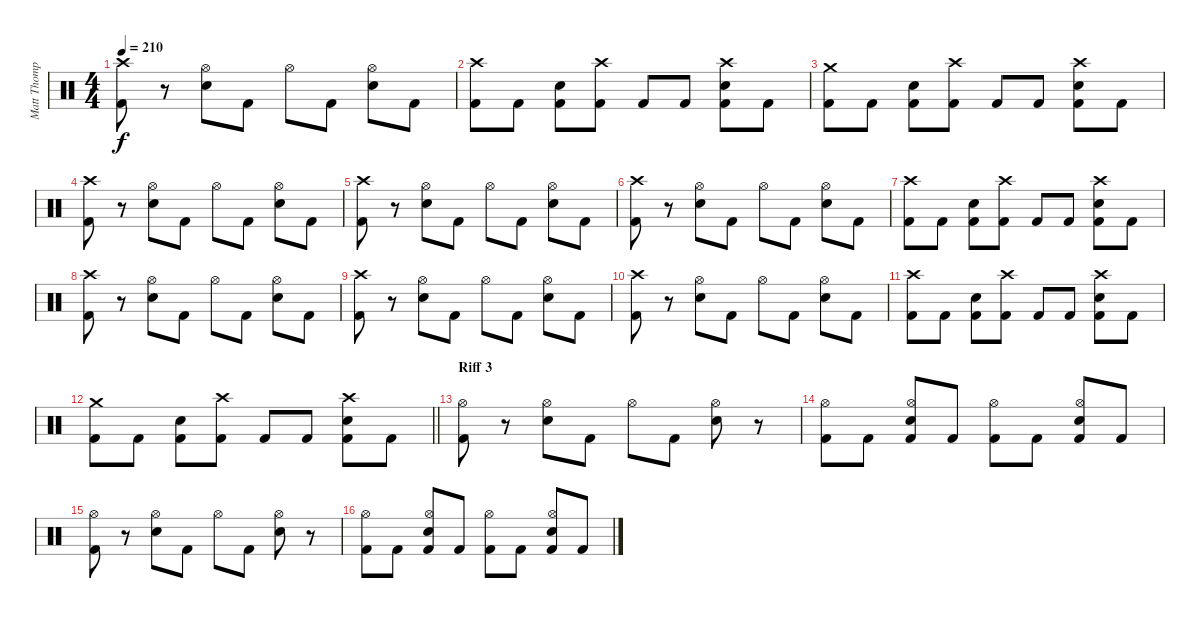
\track ("Matt Thompson" "Matt Thomp") {instrument percussion}
\staff {score}
\articulation defaults
\ts (4 4)
\tempo 210
\clef neutral
\ks c
("Crash high (hit)" "Kick (hit) 2").8{dy f} r.8 ("Hi-Hat (open)" "Electric Snare (hit)").8 "Kick (hit) 2".8 "Hi-Hat (open)".8 "Kick (hit) 2".8 ("Hi-Hat (open)" "Electric Snare (hit)").8 "Kick (hit) 2".8 |
("Crash high (hit)" "Kick (hit) 2").8 "Kick (hit) 2".8 ("Electric Snare (hit)" "Kick (hit) 2").8 ("Crash high (hit)" "Kick (hit) 2").8 "Kick (hit) 2".8 "Kick (hit) 2".8 ("Crash high (hit)" "Electric Snare (hit)" "Kick (hit) 2").8 "Kick (hit) 2".8 |
("Crash medium (hit)" "Kick (hit) 2").8 "Kick (hit) 2".8 ("Electric Snare (hit)" "Kick (hit) 2").8 ("Crash high (hit)" "Kick (hit) 2").8 "Kick (hit) 2".8 "Kick (hit) 2".8 ("Crash high (hit)" "Electric Snare (hit)" "Kick (hit) 2").8 "Kick (hit) 2".8 |
("Crash high (hit)" "Kick (hit) 2").8 r.8 ("Hi-Hat (open)" "Electric Snare (hit)").8 "Kick (hit) 2".8 "Hi-Hat (open)".8 "Kick (hit) 2".8 ("Hi-Hat (open)" "Electric Snare (hit)").8 "Kick (hit) 2".8 |
("Crash high (hit)" "Kick (hit) 2").8 r.8 ("Hi-Hat (open)" "Electric Snare (hit)").8 "Kick (hit) 2".8 "Hi-Hat (open)".8 "Kick (hit) 2".8 ("Hi-Hat (open)" "Electric Snare (hit)").8 "Kick (hit) 2".8 |
("Crash high (hit)" "Kick (hit) 2").8 r.8 ("Hi-Hat (open)" "Electric Snare (hit)").8 "Kick (hit) 2".8 "Hi-Hat (open)".8 "Kick (hit) 2".8 ("Hi-Hat (open)" "Electric Snare (hit)").8 "Kick (hit) 2".8 |
("Crash high (hit)" "Kick (hit) 2").8 "Kick (hit) 2".8 ("Electric Snare (hit)" "Kick (hit) 2").8 ("Crash high (hit)" "Kick (hit) 2").8 "Kick (hit) 2".8 "Kick (hit) 2".8 ("Crash high (hit)" "Electric Snare (hit)" "Kick (hit) 2").8 "Kick (hit) 2".8 |
("Crash high (hit)" "Kick (hit) 2").8 r.8 ("Hi-Hat (open)" "Electric Snare (hit)").8 "Kick (hit) 2".8 "Hi-Hat (open)".8 "Kick (hit) 2".8 ("Hi-Hat (open)" "Electric Snare (hit)").8 "Kick (hit) 2".8 |
("Crash high (hit)" "Kick (hit) 2").8 r.8 ("Hi-Hat (open)" "Electric Snare (hit)").8 "Kick (hit) 2".8 "Hi-Hat (open)".8 "Kick (hit) 2".8 ("Hi-Hat (open)" "Electric Snare (hit)").8 "Kick (hit) 2".8 |
("Crash high (hit)" "Kick (hit) 2").8 r.8 ("Hi-Hat (open)" "Electric Snare (hit)").8 "Kick (hit) 2".8 "Hi-Hat (open)".8 "Kick (hit) 2".8 ("Hi-Hat (open)" "Electric Snare (hit)").8 "Kick (hit) 2".8 |
("Crash high (hit)" "Kick (hit) 2").8 "Kick (hit) 2".8 ("Electric Snare (hit)" "Kick (hit) 2").8 ("Crash high (hit)" "Kick (hit) 2").8 "Kick (hit) 2".8 "Kick (hit) 2".8 ("Crash high (hit)" "Electric Snare (hit)" "Kick (hit) 2").8 "Kick (hit) 2".8 |
\barLineRight lightlight
("Crash medium (hit)" "Kick (hit) 2").8 "Kick (hit) 2".8 ("Electric Snare (hit)" "Kick (hit) 2").8 ("Crash high (hit)" "Kick (hit) 2").8 "Kick (hit) 2".8 "Kick (hit) 2".8 ("Crash high (hit)" "Electric Snare (hit)" "Kick (hit) 2").8 "Kick (hit) 2".8 |
\section ("" "Riff 3")
("Hi-Hat (open)" "Kick (hit) 2").8 r.8 ("Hi-Hat (open)" "Electric Snare (hit)").8 "Kick (hit) 2".8 "Hi-Hat (open)".8 "Kick (hit) 2".8 ("Hi-Hat (open)" "Electric Snare (hit)").8 r.8 |
("Hi-Hat (open)" "Kick (hit) 2").8 "Kick (hit) 2".8 ("Hi-Hat (open)" "Electric Snare (hit)" "Kick (hit) 2").8 "Kick (hit) 2".8 ("Hi-Hat (open)" "Kick (hit) 2").8 "Kick (hit) 2".8 ("Hi-Hat (open)" "Electric Snare (hit)" "Kick (hit) 2").8 "Kick (hit) 2".8 |
("Hi-Hat (open)" "Kick (hit) 2").8 r.8 ("Hi-Hat (open)" "Electric Snare (hit)").8 "Kick (hit) 2".8 "Hi-Hat (open)".8 "Kick (hit) 2".8 ("Hi-Hat (open)" "Electric Snare (hit)").8 r.8 |
("Hi-Hat (open)" "Kick (hit) 2").8 "Kick (hit) 2".8 ("Hi-Hat (open)" "Electric Snare (hit)" "Kick (hit) 2").8 "Kick (hit) 2".8 ("Hi-Hat (open)" "Kick (hit) 2").8 "Kick (hit) 2".8 ("Hi-Hat (open)" "Electric Snare (hit)" "Kick (hit) 2").8 "Kick (hit) 2".8
